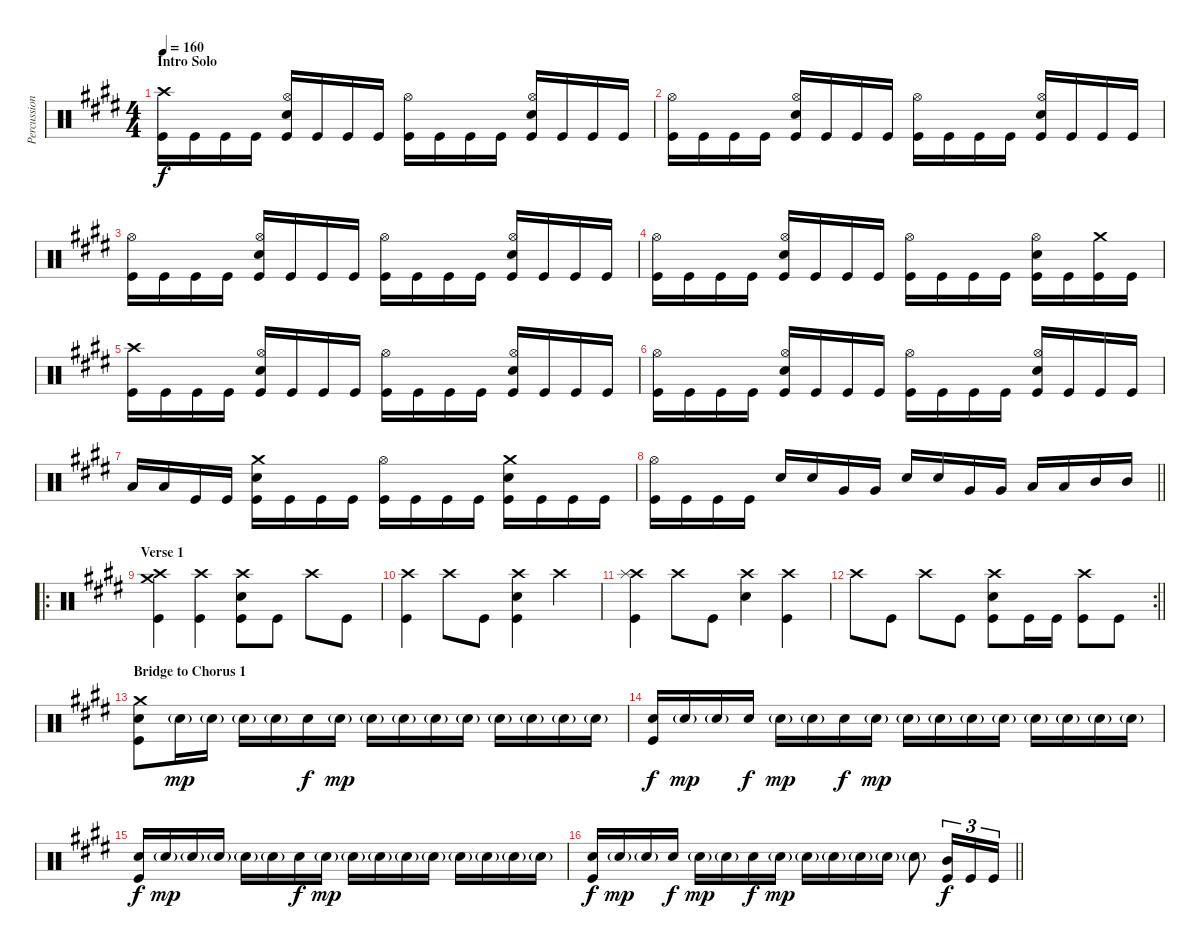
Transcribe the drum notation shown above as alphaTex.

\track ("Percussion" "Percussion") {instrument percussion}
\staff {score}
\articulation defaults
\ts (4 4)
\section ("" "Intro Solo")
\tempo 160
\clef neutral
\ks e
("Crash high (hit)" "Kick (hit)").16{dy f} "Kick (hit)".16 "Kick (hit)".16 "Kick (hit)".16 ("Hi-Hat (open)" "Electric Snare (hit)" "Kick (hit)").16 "Kick (hit)".16 "Kick (hit)".16 "Kick (hit)".16 ("Hi-Hat (open)" "Kick (hit)").16 "Kick (hit)".16 "Kick (hit)".16 "Kick (hit)".16 ("Hi-Hat (open)" "Electric Snare (hit)" "Kick (hit)").16 "Kick (hit)".16 "Kick (hit)".16 "Kick (hit)".16 |
("Hi-Hat (open)" "Kick (hit)").16 "Kick (hit)".16 "Kick (hit)".16 "Kick (hit)".16 ("Hi-Hat (open)" "Electric Snare (hit)" "Kick (hit)").16 "Kick (hit)".16 "Kick (hit)".16 "Kick (hit)".16 ("Hi-Hat (open)" "Kick (hit)").16 "Kick (hit)".16 "Kick (hit)".16 "Kick (hit)".16 ("Hi-Hat (open)" "Electric Snare (hit)" "Kick (hit)").16 "Kick (hit)".16 "Kick (hit)".16 "Kick (hit)".16 |
("Hi-Hat (open)" "Kick (hit)").16 "Kick (hit)".16 "Kick (hit)".16 "Kick (hit)".16 ("Hi-Hat (open)" "Electric Snare (hit)" "Kick (hit)").16 "Kick (hit)".16 "Kick (hit)".16 "Kick (hit)".16 ("Hi-Hat (open)" "Kick (hit)").16 "Kick (hit)".16 "Kick (hit)".16 "Kick (hit)".16 ("Hi-Hat (open)" "Electric Snare (hit)" "Kick (hit)").16 "Kick (hit)".16 "Kick (hit)".16 "Kick (hit)".16 |
("Hi-Hat (open)" "Kick (hit)").16 "Kick (hit)".16 "Kick (hit)".16 "Kick (hit)".16 ("Hi-Hat (open)" "Electric Snare (hit)" "Kick (hit)").16 "Kick (hit)".16 "Kick (hit)".16 "Kick (hit)".16 ("Hi-Hat (open)" "Kick (hit)").16 "Kick (hit)".16 "Kick (hit)".16 "Kick (hit)".16 ("Hi-Hat (open)" "Electric Snare (hit)" "Kick (hit)").16 "Kick (hit)".16 ("Crash medium (hit)" "Kick (hit)").16 "Kick (hit)".16 |
("Crash high (hit)" "Kick (hit)").16 "Kick (hit)".16 "Kick (hit)".16 "Kick (hit)".16 ("Hi-Hat (open)" "Electric Snare (hit)" "Kick (hit)").16 "Kick (hit)".16 "Kick (hit)".16 "Kick (hit)".16 ("Hi-Hat (open)" "Kick (hit)").16 "Kick (hit)".16 "Kick (hit)".16 "Kick (hit)".16 ("Hi-Hat (open)" "Electric Snare (hit)" "Kick (hit)").16 "Kick (hit)".16 "Kick (hit)".16 "Kick (hit)".16 |
("Hi-Hat (open)" "Kick (hit)").16 "Kick (hit)".16 "Kick (hit)".16 "Kick (hit)".16 ("Hi-Hat (open)" "Electric Snare (hit)" "Kick (hit)").16 "Kick (hit)".16 "Kick (hit)".16 "Kick (hit)".16 ("Hi-Hat (open)" "Kick (hit)").16 "Kick (hit)".16 "Kick (hit)".16 "Kick (hit)".16 ("Hi-Hat (open)" "Electric Snare (hit)" "Kick (hit)").16 "Kick (hit)".16 "Kick (hit)".16 "Kick (hit)".16 |
"Low Floor Tom (hit)".16 "Low Floor Tom (hit)".16 "Kick (hit)".16 "Kick (hit)".16 ("Crash medium (hit)" "Electric Snare (hit)" "Kick (hit)").16 "Kick (hit)".16 "Kick (hit)".16 "Kick (hit)".16 ("Hi-Hat (open)" "Kick (hit)").16 "Kick (hit)".16 "Kick (hit)".16 "Kick (hit)".16 ("Crash medium (hit)" "Electric Snare (hit)" "Kick (hit)").16 "Kick (hit)".16 "Kick (hit)".16 "Kick (hit)".16 |
\barLineRight lightlight
("Hi-Hat (open)" "Kick (hit)").16 "Kick (hit)".16 "Kick (hit)".16 "Kick (hit)".16 "Electric Snare (hit)".16 "Electric Snare (hit)".16 "Very Low Tom (hit)".16 "Very Low Tom (hit)".16 "Electric Snare (hit)".16 "Electric Snare (hit)".16 "Very Low Tom (hit)".16 "Very Low Tom (hit)".16 "Low Tom (hit)".16 "Low Tom (hit)".16 "Mid Tom (hit)".16 "Mid Tom (hit)".16 |
\ro
\section ("" "Verse 1")
("Crash high (hit)" "Crash medium (hit)" "Kick (hit)").4 ("Crash high (hit)" "Kick (hit)").4 ("Crash high (hit)" "Electric Snare (hit)" "Kick (hit)").8 "Kick (hit)".8 "Crash high (hit)".8 "Kick (hit)".8 |
("Crash high (hit)" "Kick (hit)").4 "Crash high (hit)".8 "Kick (hit)".8 ("Crash high (hit)" "Electric Snare (hit)" "Kick (hit)").4 "Crash high (hit)".4 |
("Crash high (hit)" "Splash (hit)" "Kick (hit)").4 "Crash high (hit)".8 "Kick (hit)".8 ("Crash high (hit)" "Electric Snare (hit)").4 ("Crash high (hit)" "Kick (hit)").4 |
\rc 2
\barLineRight lightlight "Crash high (hit)".8 "Kick (hit)".8 "Crash high (hit)".8 "Kick (hit)".8
("Crash high (hit)" "Electric Snare (hit)" "Kick (hit)").8 "Kick (hit)".16 "Kick (hit)".16 ("Crash high (hit)" "Kick (hit)").8 "Kick (hit)".8 |
\section ("" "Bridge to Chorus 1")
("Crash medium (hit)" "Electric Snare (hit)" "Kick (hit)").8 "Electric Snare (hit)"{g}.16{dy mp} "Electric Snare (hit)"{g}.16 "Electric Snare (hit)"{g}.16 "Electric Snare (hit)"{g}.16 "Electric Snare (hit)".16{dy f} "Electric Snare (hit)"{g}.16{dy mp} "Electric Snare (hit)"{g}.16 "Electric Snare (hit)"{g}.16 "Electric Snare (hit)"{g}.16 "Electric Snare (hit)"{g}.16 "Electric Snare (hit)"{g}.16 "Electric Snare (hit)"{g}.16 "Electric Snare (hit)"{g}.16 "Electric Snare (hit)"{g}.16 |
("Electric Snare (hit)" "Kick (hit)").16{dy f} "Electric Snare (hit)"{g}.16{dy mp} "Electric Snare (hit)"{g}.16 "Electric Snare (hit)".16{dy f} "Electric Snare (hit)"{g}.16{dy mp} "Electric Snare (hit)"{g}.16 "Electric Snare (hit)".16{dy f} "Electric Snare (hit)"{g}.16{dy mp} "Electric Snare (hit)"{g}.16 "Electric Snare (hit)"{g}.16 "Electric Snare (hit)"{g}.16 "Electric Snare (hit)"{g}.16 "Electric Snare (hit)"{g}.16 "Electric Snare (hit)"{g}.16 "Electric Snare (hit)"{g}.16 "Electric Snare (hit)"{g}.16 |
("Electric Snare (hit)" "Kick (hit)").16{dy f} "Electric Snare (hit)"{g}.16{dy mp} "Electric Snare (hit)"{g}.16 "Electric Snare (hit)"{g}.16 "Electric Snare (hit)"{g}.16 "Electric Snare (hit)"{g}.16 "Electric Snare (hit)".16{dy f} "Electric Snare (hit)"{g}.16{dy mp} "Electric Snare (hit)"{g}.16 "Electric Snare (hit)"{g}.16 "Electric Snare (hit)"{g}.16 "Electric Snare (hit)"{g}.16 "Electric Snare (hit)"{g}.16 "Electric Snare (hit)"{g}.16 "Electric Snare (hit)"{g}.16 "Electric Snare (hit)"{g}.16 |
\barLineRight lightlight
("Electric Snare (hit)" "Kick (hit)").16{dy f} "Electric Snare (hit)"{g}.16{dy mp} "Electric Snare (hit)"{g}.16 "Electric Snare (hit)".16{dy f} "Electric Snare (hit)"{g}.16{dy mp} "Electric Snare (hit)"{g}.16 "Electric Snare (hit)".16{dy f} "Electric Snare (hit)"{g}.16{dy mp} "Electric Snare (hit)"{g}.16 "Electric Snare (hit)"{g}.16 "Electric Snare (hit)"{g}.16 "Electric Snare (hit)"{g}.16 "Electric Snare (hit)"{g}.8 ("Mid Tom (hit)" "Kick (hit)").16{tu (3 2) dy f} "Kick (hit)".16{tu (3 2)} "Kick (hit)".16{tu (3 2)}
